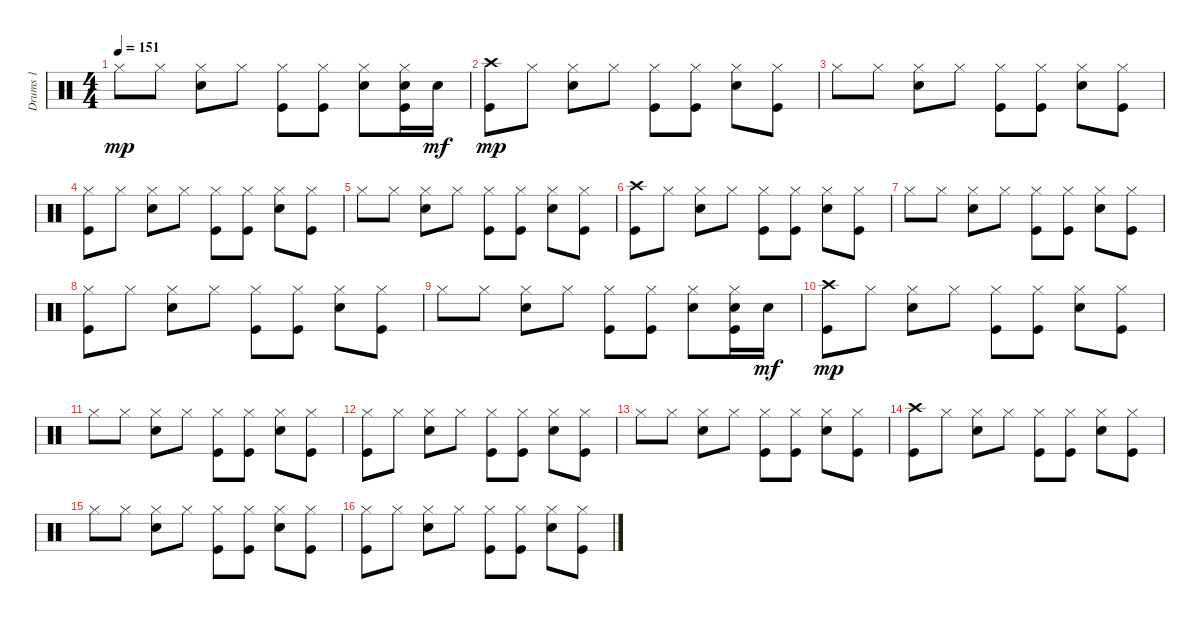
\track ("Drums 1" "Drums 1") {instrument percussion}
\staff {score}
\articulation defaults
\ts (4 4)
\tempo 151
\clef neutral
\ks c "Hi-Hat (closed)".8{dy mp} "Hi-Hat (closed)".8
("Hi-Hat (closed)" "Snare (hit) 2").8 "Hi-Hat (closed)".8 ("Kick (hit)" "Hi-Hat (closed)").8 ("Kick (hit)" "Hi-Hat (closed)").8 ("Snare (hit) 2" "Hi-Hat (closed)").8 ("Snare (hit) 2" "Hi-Hat (closed)" "Kick (hit)").16 "Snare (hit) 2".16{dy mf} |
("Crash high (hit)" "Kick (hit)").8{dy mp} "Hi-Hat (closed)".8 ("Hi-Hat (closed)" "Snare (hit) 2").8 "Hi-Hat (closed)".8 ("Hi-Hat (closed)" "Kick (hit)").8 ("Kick (hit)" "Hi-Hat (closed)").8 ("Hi-Hat (closed)" "Snare (hit) 2").8 ("Hi-Hat (closed)" "Kick (hit)").8 |
"Hi-Hat (closed)".8 "Hi-Hat (closed)".8 ("Hi-Hat (closed)" "Snare (hit) 2").8 "Hi-Hat (closed)".8 ("Kick (hit)" "Hi-Hat (closed)").8 ("Kick (hit)" "Hi-Hat (closed)").8 ("Snare (hit) 2" "Hi-Hat (closed)").8 ("Hi-Hat (closed)" "Kick (hit)").8 |
("Hi-Hat (closed)" "Kick (hit)").8 "Hi-Hat (closed)".8 ("Hi-Hat (closed)" "Snare (hit) 2").8 "Hi-Hat (closed)".8 ("Hi-Hat (closed)" "Kick (hit)").8 ("Kick (hit)" "Hi-Hat (closed)").8 ("Hi-Hat (closed)" "Snare (hit) 2").8 ("Hi-Hat (closed)" "Kick (hit)").8 |
"Hi-Hat (closed)".8 "Hi-Hat (closed)".8 ("Hi-Hat (closed)" "Snare (hit) 2").8 "Hi-Hat (closed)".8 ("Kick (hit)" "Hi-Hat (closed)").8 ("Kick (hit)" "Hi-Hat (closed)").8 ("Snare (hit) 2" "Hi-Hat (closed)").8 ("Hi-Hat (closed)" "Kick (hit)").8 |
("Crash high (hit)" "Kick (hit)").8 "Hi-Hat (closed)".8 ("Hi-Hat (closed)" "Snare (hit) 2").8 "Hi-Hat (closed)".8 ("Hi-Hat (closed)" "Kick (hit)").8 ("Kick (hit)" "Hi-Hat (closed)").8 ("Hi-Hat (closed)" "Snare (hit) 2").8 ("Hi-Hat (closed)" "Kick (hit)").8 |
"Hi-Hat (closed)".8 "Hi-Hat (closed)".8 ("Hi-Hat (closed)" "Snare (hit) 2").8 "Hi-Hat (closed)".8 ("Kick (hit)" "Hi-Hat (closed)").8 ("Kick (hit)" "Hi-Hat (closed)").8 ("Snare (hit) 2" "Hi-Hat (closed)").8 ("Hi-Hat (closed)" "Kick (hit)").8 |
("Hi-Hat (closed)" "Kick (hit)").8 "Hi-Hat (closed)".8 ("Hi-Hat (closed)" "Snare (hit) 2").8 "Hi-Hat (closed)".8 ("Hi-Hat (closed)" "Kick (hit)").8 ("Kick (hit)" "Hi-Hat (closed)").8 ("Hi-Hat (closed)" "Snare (hit) 2").8 ("Hi-Hat (closed)" "Kick (hit)").8 |
"Hi-Hat (closed)".8 "Hi-Hat (closed)".8 ("Hi-Hat (closed)" "Snare (hit) 2").8 "Hi-Hat (closed)".8 ("Kick (hit)" "Hi-Hat (closed)").8 ("Kick (hit)" "Hi-Hat (closed)").8 ("Snare (hit) 2" "Hi-Hat (closed)").8 ("Snare (hit) 2" "Hi-Hat (closed)" "Kick (hit)").16 "Snare (hit) 2".16{dy mf} |
("Crash high (hit)" "Kick (hit)").8{dy mp} "Hi-Hat (closed)".8 ("Hi-Hat (closed)" "Snare (hit) 2").8 "Hi-Hat (closed)".8 ("Hi-Hat (closed)" "Kick (hit)").8 ("Kick (hit)" "Hi-Hat (closed)").8 ("Hi-Hat (closed)" "Snare (hit) 2").8 ("Hi-Hat (closed)" "Kick (hit)").8 |
"Hi-Hat (closed)".8 "Hi-Hat (closed)".8 ("Hi-Hat (closed)" "Snare (hit) 2").8 "Hi-Hat (closed)".8 ("Kick (hit)" "Hi-Hat (closed)").8 ("Kick (hit)" "Hi-Hat (closed)").8 ("Snare (hit) 2" "Hi-Hat (closed)").8 ("Hi-Hat (closed)" "Kick (hit)").8 |
("Hi-Hat (closed)" "Kick (hit)").8 "Hi-Hat (closed)".8 ("Hi-Hat (closed)" "Snare (hit) 2").8 "Hi-Hat (closed)".8 ("Hi-Hat (closed)" "Kick (hit)").8 ("Kick (hit)" "Hi-Hat (closed)").8 ("Hi-Hat (closed)" "Snare (hit) 2").8 ("Hi-Hat (closed)" "Kick (hit)").8 |
"Hi-Hat (closed)".8 "Hi-Hat (closed)".8 ("Hi-Hat (closed)" "Snare (hit) 2").8 "Hi-Hat (closed)".8 ("Kick (hit)" "Hi-Hat (closed)").8 ("Kick (hit)" "Hi-Hat (closed)").8 ("Snare (hit) 2" "Hi-Hat (closed)").8 ("Hi-Hat (closed)" "Kick (hit)").8 |
("Crash high (hit)" "Kick (hit)").8 "Hi-Hat (closed)".8 ("Hi-Hat (closed)" "Snare (hit) 2").8 "Hi-Hat (closed)".8 ("Hi-Hat (closed)" "Kick (hit)").8 ("Kick (hit)" "Hi-Hat (closed)").8 ("Hi-Hat (closed)" "Snare (hit) 2").8 ("Hi-Hat (closed)" "Kick (hit)").8 |
"Hi-Hat (closed)".8 "Hi-Hat (closed)".8 ("Hi-Hat (closed)" "Snare (hit) 2").8 "Hi-Hat (closed)".8 ("Kick (hit)" "Hi-Hat (closed)").8 ("Kick (hit)" "Hi-Hat (closed)").8 ("Snare (hit) 2" "Hi-Hat (closed)").8 ("Hi-Hat (closed)" "Kick (hit)").8 |
("Hi-Hat (closed)" "Kick (hit)").8 "Hi-Hat (closed)".8 ("Hi-Hat (closed)" "Snare (hit) 2").8 "Hi-Hat (closed)".8 ("Hi-Hat (closed)" "Kick (hit)").8 ("Kick (hit)" "Hi-Hat (closed)").8 ("Hi-Hat (closed)" "Snare (hit) 2").8 ("Hi-Hat (closed)" "Kick (hit)").8
